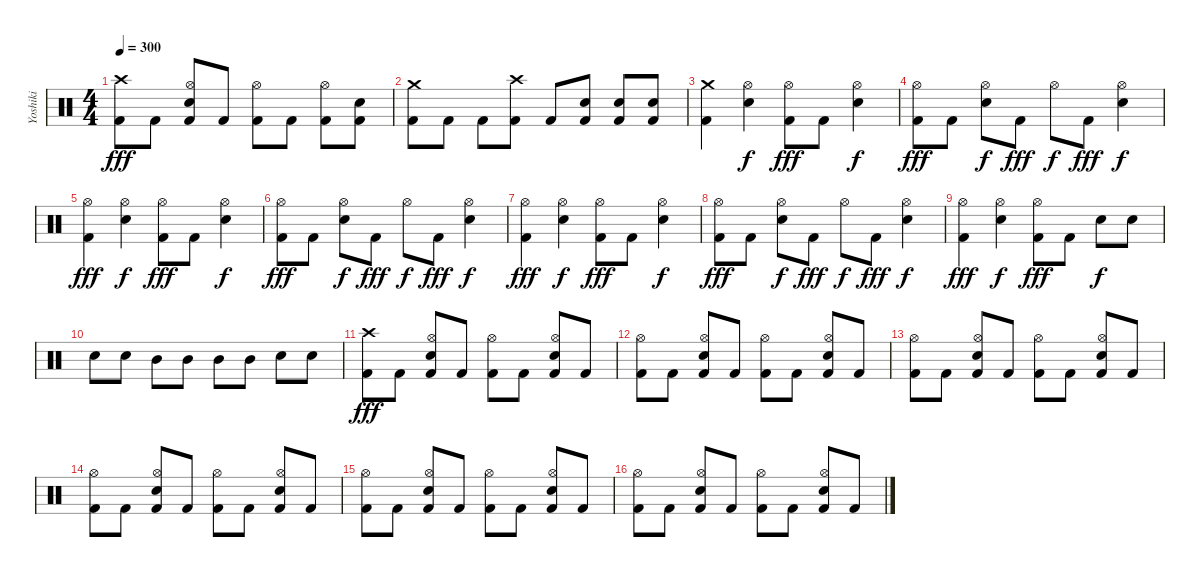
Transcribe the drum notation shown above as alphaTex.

\track ("Yoshiki" "Yoshiki") {instrument percussion}
\staff {score}
\articulation defaults
\ts (4 4)
\tempo 300
\clef neutral
\ks c
("Crash high (hit)" "Kick (hit) 2").8{dy fff} "Kick (hit) 2".8 ("Hi-Hat (open)" "Snare (hit) 2" "Kick (hit) 2").8 "Kick (hit) 2".8 ("Hi-Hat (open)" "Kick (hit) 2").8 "Kick (hit) 2".8 ("Hi-Hat (open)" "Kick (hit) 2").8 ("Snare (hit) 2" "Kick (hit) 2").8 |
("Crash medium (hit)" "Kick (hit) 2").8 "Kick (hit) 2".8 "Kick (hit) 2".8 ("Crash high (hit)" "Kick (hit) 2").8 "Kick (hit) 2".8 ("Snare (hit) 2" "Kick (hit) 2").8 ("Snare (hit) 2" "Kick (hit) 2").8 ("Snare (hit) 2" "Kick (hit) 2").8 |
("Crash medium (hit)" "Kick (hit) 2").4 ("Hi-Hat (open)" "Snare (hit) 2").4{dy f} ("Hi-Hat (open)" "Kick (hit) 2").8{dy fff} "Kick (hit) 2".8 ("Hi-Hat (open)" "Snare (hit) 2").4{dy f} |
("Hi-Hat (open)" "Kick (hit) 2").8{dy fff} "Kick (hit) 2".8 ("Hi-Hat (open)" "Snare (hit) 2").8{dy f} "Kick (hit) 2".8{dy fff} "Hi-Hat (open)".8{dy f} "Kick (hit) 2".8{dy fff} ("Hi-Hat (open)" "Snare (hit) 2").4{dy f} |
("Hi-Hat (open)" "Kick (hit) 2").4{dy fff} ("Hi-Hat (open)" "Snare (hit) 2").4{dy f} ("Hi-Hat (open)" "Kick (hit) 2").8{dy fff} "Kick (hit) 2".8 ("Hi-Hat (open)" "Snare (hit) 2").4{dy f} |
("Hi-Hat (open)" "Kick (hit) 2").8{dy fff} "Kick (hit) 2".8 ("Hi-Hat (open)" "Snare (hit) 2").8{dy f} "Kick (hit) 2".8{dy fff} "Hi-Hat (open)".8{dy f} "Kick (hit) 2".8{dy fff} ("Hi-Hat (open)" "Snare (hit) 2").4{dy f} |
("Hi-Hat (open)" "Kick (hit) 2").4{dy fff} ("Hi-Hat (open)" "Snare (hit) 2").4{dy f} ("Hi-Hat (open)" "Kick (hit) 2").8{dy fff} "Kick (hit) 2".8 ("Hi-Hat (open)" "Snare (hit) 2").4{dy f} |
("Hi-Hat (open)" "Kick (hit) 2").8{dy fff} "Kick (hit) 2".8 ("Hi-Hat (open)" "Snare (hit) 2").8{dy f} "Kick (hit) 2".8{dy fff} "Hi-Hat (open)".8{dy f} "Kick (hit) 2".8{dy fff} ("Hi-Hat (open)" "Snare (hit) 2").4{dy f} |
("Hi-Hat (open)" "Kick (hit) 2").4{dy fff} ("Hi-Hat (open)" "Snare (hit) 2").4{dy f} ("Hi-Hat (open)" "Kick (hit) 2").8{dy fff} "Kick (hit) 2".8 "Snare (hit) 2".8{dy f} "Snare (hit) 2".8 |
"Snare (hit) 2".8 "Snare (hit) 2".8 "Mid Tom (hit)".8 "Mid Tom (hit)".8 "Mid Tom (hit)".8 "Mid Tom (hit)".8 "Snare (hit) 2".8 "Snare (hit) 2".8 |
("Crash high (hit)" "Kick (hit) 2").8{dy fff} "Kick (hit) 2".8 ("Hi-Hat (open)" "Snare (hit) 2" "Kick (hit) 2").8 "Kick (hit) 2".8 ("Hi-Hat (open)" "Kick (hit) 2").8 "Kick (hit) 2".8 ("Hi-Hat (open)" "Snare (hit) 2" "Kick (hit) 2").8 "Kick (hit) 2".8 |
("Hi-Hat (open)" "Kick (hit) 2").8 "Kick (hit) 2".8 ("Hi-Hat (open)" "Snare (hit) 2" "Kick (hit) 2").8 "Kick (hit) 2".8 ("Hi-Hat (open)" "Kick (hit) 2").8 "Kick (hit) 2".8 ("Hi-Hat (open)" "Snare (hit) 2" "Kick (hit) 2").8 "Kick (hit) 2".8 |
("Hi-Hat (open)" "Kick (hit) 2").8 "Kick (hit) 2".8 ("Hi-Hat (open)" "Snare (hit) 2" "Kick (hit) 2").8 "Kick (hit) 2".8 ("Hi-Hat (open)" "Kick (hit) 2").8 "Kick (hit) 2".8 ("Hi-Hat (open)" "Snare (hit) 2" "Kick (hit) 2").8 "Kick (hit) 2".8 |
("Hi-Hat (open)" "Kick (hit) 2").8 "Kick (hit) 2".8 ("Hi-Hat (open)" "Snare (hit) 2" "Kick (hit) 2").8 "Kick (hit) 2".8 ("Hi-Hat (open)" "Kick (hit) 2").8 "Kick (hit) 2".8 ("Hi-Hat (open)" "Snare (hit) 2" "Kick (hit) 2").8 "Kick (hit) 2".8 |
("Hi-Hat (open)" "Kick (hit) 2").8 "Kick (hit) 2".8 ("Hi-Hat (open)" "Snare (hit) 2" "Kick (hit) 2").8 "Kick (hit) 2".8 ("Hi-Hat (open)" "Kick (hit) 2").8 "Kick (hit) 2".8 ("Hi-Hat (open)" "Snare (hit) 2" "Kick (hit) 2").8 "Kick (hit) 2".8 |
("Hi-Hat (open)" "Kick (hit) 2").8 "Kick (hit) 2".8 ("Hi-Hat (open)" "Snare (hit) 2" "Kick (hit) 2").8 "Kick (hit) 2".8 ("Hi-Hat (open)" "Kick (hit) 2").8 "Kick (hit) 2".8 ("Hi-Hat (open)" "Snare (hit) 2" "Kick (hit) 2").8 "Kick (hit) 2".8
